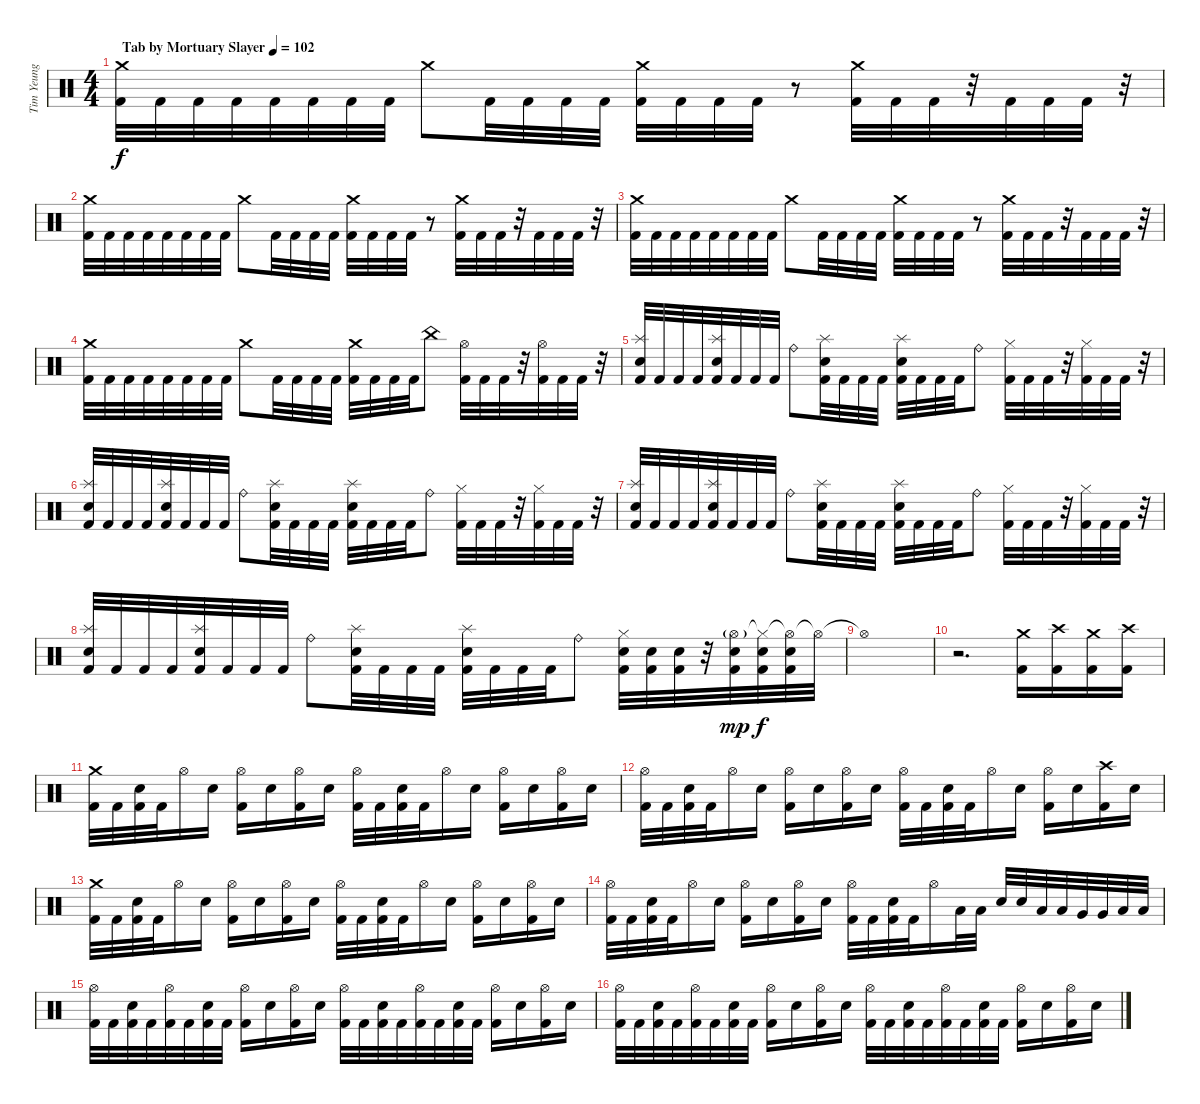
\track ("Tim Yeung" "Tim Yeung") {instrument percussion}
\staff {score}
\articulation defaults
\ts (4 4)
\tempo (102 "Tab by Mortuary Slayer")
\clef neutral
\ks c
("Crash medium (hit)" "Kick (hit) 2").32{dy f} "Kick (hit) 2".32 "Kick (hit) 2".32 "Kick (hit) 2".32 "Kick (hit) 2".32 "Kick (hit) 2".32 "Kick (hit) 2".32 "Kick (hit) 2".32 "Crash medium (hit)".8 "Kick (hit) 2".32 "Kick (hit) 2".32 "Kick (hit) 2".32 "Kick (hit) 2".32 ("Crash medium (hit)" "Kick (hit) 2").32 "Kick (hit) 2".32 "Kick (hit) 2".32 "Kick (hit) 2".32 r.8 ("Crash medium (hit)" "Kick (hit) 2").32 "Kick (hit) 2".32 "Kick (hit) 2".32 r.32 "Kick (hit) 2".32 "Kick (hit) 2".32 "Kick (hit) 2".32 r.32 |
("Crash medium (hit)" "Kick (hit) 2").32 "Kick (hit) 2".32 "Kick (hit) 2".32 "Kick (hit) 2".32 "Kick (hit) 2".32 "Kick (hit) 2".32 "Kick (hit) 2".32 "Kick (hit) 2".32 "Crash medium (hit)".8 "Kick (hit) 2".32 "Kick (hit) 2".32 "Kick (hit) 2".32 "Kick (hit) 2".32 ("Crash medium (hit)" "Kick (hit) 2").32 "Kick (hit) 2".32 "Kick (hit) 2".32 "Kick (hit) 2".32 r.8 ("Crash medium (hit)" "Kick (hit) 2").32 "Kick (hit) 2".32 "Kick (hit) 2".32 r.32 "Kick (hit) 2".32 "Kick (hit) 2".32 "Kick (hit) 2".32 r.32 |
("Crash medium (hit)" "Kick (hit) 2").32 "Kick (hit) 2".32 "Kick (hit) 2".32 "Kick (hit) 2".32 "Kick (hit) 2".32 "Kick (hit) 2".32 "Kick (hit) 2".32 "Kick (hit) 2".32 "Crash medium (hit)".8 "Kick (hit) 2".32 "Kick (hit) 2".32 "Kick (hit) 2".32 "Kick (hit) 2".32 ("Crash medium (hit)" "Kick (hit) 2").32 "Kick (hit) 2".32 "Kick (hit) 2".32 "Kick (hit) 2".32 r.8 ("Crash medium (hit)" "Kick (hit) 2").32 "Kick (hit) 2".32 "Kick (hit) 2".32 r.32 "Kick (hit) 2".32 "Kick (hit) 2".32 "Kick (hit) 2".32 r.32 |
("Crash medium (hit)" "Kick (hit) 2").32 "Kick (hit) 2".32 "Kick (hit) 2".32 "Kick (hit) 2".32 "Kick (hit) 2".32 "Kick (hit) 2".32 "Kick (hit) 2".32 "Kick (hit) 2".32 "Crash medium (hit)".8 "Kick (hit) 2".32 "Kick (hit) 2".32 "Kick (hit) 2".32 "Kick (hit) 2".32 ("Crash medium (hit)" "Kick (hit) 2").32 "Kick (hit) 2".32 "Kick (hit) 2".32 "Kick (hit) 2".32 "China (hit)".8 ("Hi-Hat (open)" "Kick (hit) 2").32 "Kick (hit) 2".32 "Kick (hit) 2".32 r.32 ("Hi-Hat (open)" "Kick (hit) 2").32 "Kick (hit) 2".32 "Kick (hit) 2".32 r.32 |
("Splash (hit)" "Electric Snare (hit)" "Kick (hit) 2").32 "Kick (hit) 2".32 "Kick (hit) 2".32 "Kick (hit) 2".32 ("Splash (hit)" "Electric Snare (hit)" "Kick (hit) 2").32 "Kick (hit) 2".32 "Kick (hit) 2".32 "Kick (hit) 2".32 "Ride (bell)".8 ("Splash (hit)" "Electric Snare (hit)" "Kick (hit) 2").32 "Kick (hit) 2".32 "Kick (hit) 2".32 "Kick (hit) 2".32 ("Splash (hit)" "Electric Snare (hit)" "Kick (hit) 2").32 "Kick (hit) 2".32 "Kick (hit) 2".32 "Kick (hit) 2".32 "Ride (bell)".8 ("Hi-Hat (closed)" "Kick (hit) 2").32 "Kick (hit) 2".32 "Kick (hit) 2".32 r.32 ("Hi-Hat (closed)" "Kick (hit) 2").32 "Kick (hit) 2".32 "Kick (hit) 2".32 r.32 |
("Splash (hit)" "Electric Snare (hit)" "Kick (hit) 2").32 "Kick (hit) 2".32 "Kick (hit) 2".32 "Kick (hit) 2".32 ("Splash (hit)" "Electric Snare (hit)" "Kick (hit) 2").32 "Kick (hit) 2".32 "Kick (hit) 2".32 "Kick (hit) 2".32 "Ride (bell)".8 ("Splash (hit)" "Electric Snare (hit)" "Kick (hit) 2").32 "Kick (hit) 2".32 "Kick (hit) 2".32 "Kick (hit) 2".32 ("Splash (hit)" "Electric Snare (hit)" "Kick (hit) 2").32 "Kick (hit) 2".32 "Kick (hit) 2".32 "Kick (hit) 2".32 "Ride (bell)".8 ("Hi-Hat (closed)" "Kick (hit) 2").32 "Kick (hit) 2".32 "Kick (hit) 2".32 r.32 ("Hi-Hat (closed)" "Kick (hit) 2").32 "Kick (hit) 2".32 "Kick (hit) 2".32 r.32 |
("Splash (hit)" "Electric Snare (hit)" "Kick (hit) 2").32 "Kick (hit) 2".32 "Kick (hit) 2".32 "Kick (hit) 2".32 ("Splash (hit)" "Electric Snare (hit)" "Kick (hit) 2").32 "Kick (hit) 2".32 "Kick (hit) 2".32 "Kick (hit) 2".32 "Ride (bell)".8 ("Splash (hit)" "Electric Snare (hit)" "Kick (hit) 2").32 "Kick (hit) 2".32 "Kick (hit) 2".32 "Kick (hit) 2".32 ("Splash (hit)" "Electric Snare (hit)" "Kick (hit) 2").32 "Kick (hit) 2".32 "Kick (hit) 2".32 "Kick (hit) 2".32 "Ride (bell)".8 ("Hi-Hat (closed)" "Kick (hit) 2").32 "Kick (hit) 2".32 "Kick (hit) 2".32 r.32 ("Hi-Hat (closed)" "Kick (hit) 2").32 "Kick (hit) 2".32 "Kick (hit) 2".32 r.32 |
("Splash (hit)" "Electric Snare (hit)" "Kick (hit) 2").32 "Kick (hit) 2".32 "Kick (hit) 2".32 "Kick (hit) 2".32 ("Splash (hit)" "Electric Snare (hit)" "Kick (hit) 2").32 "Kick (hit) 2".32 "Kick (hit) 2".32 "Kick (hit) 2".32 "Ride (bell)".8 ("Splash (hit)" "Electric Snare (hit)" "Kick (hit) 2").32 "Kick (hit) 2".32 "Kick (hit) 2".32 "Kick (hit) 2".32 ("Splash (hit)" "Electric Snare (hit)" "Kick (hit) 2").32 "Kick (hit) 2".32 "Kick (hit) 2".32 "Kick (hit) 2".32 "Ride (bell)".8 ("Hi-Hat (closed)" "Electric Snare (hit)" "Kick (hit) 2").32 ("Electric Snare (hit)" "Kick (hit) 2").32 ("Electric Snare (hit)" "Kick (hit) 2").32 r.32 ("Hi-Hat (open)"{g} "Electric Snare (hit)" "Kick (hit) 2").32{dy mp} ("Hi-Hat (closed)"{t} "Electric Snare (hit)" "Kick (hit) 2").32{dy f} ("Hi-Hat (open)"{t} "Electric Snare (hit)" "Kick (hit) 2").32 "Hi-Hat (open)"{t}.32 |
"Hi-Hat (open)"{t}.1 |
r.2{d} ("Crash medium (hit)" "Kick (hit) 2").16 ("Crash high (hit)" "Kick (hit) 2").16 ("Crash medium (hit)" "Kick (hit) 2").16 ("Crash high (hit)" "Kick (hit) 2").16 |
("Crash medium (hit)" "Kick (hit) 2").32 "Kick (hit) 2".32 ("Electric Snare (hit)" "Kick (hit) 2").32 "Kick (hit) 2".32 "Hi-Hat (open)".16 "Electric Snare (hit)".16 ("Hi-Hat (open)" "Kick (hit) 2").16 "Electric Snare (hit)".16 ("Hi-Hat (open)" "Kick (hit) 2").16 "Electric Snare (hit)".16 ("Hi-Hat (open)" "Kick (hit) 2").32 "Kick (hit) 2".32 ("Electric Snare (hit)" "Kick (hit) 2").32 "Kick (hit) 2".32 "Hi-Hat (open)".16 "Electric Snare (hit)".16 ("Hi-Hat (open)" "Kick (hit) 2").16 "Electric Snare (hit)".16 ("Hi-Hat (open)" "Kick (hit) 2").16 "Electric Snare (hit)".16 |
("Hi-Hat (open)" "Kick (hit) 2").32 "Kick (hit) 2".32 ("Electric Snare (hit)" "Kick (hit) 2").32 "Kick (hit) 2".32 "Hi-Hat (open)".16 "Electric Snare (hit)".16 ("Hi-Hat (open)" "Kick (hit) 2").16 "Electric Snare (hit)".16 ("Hi-Hat (open)" "Kick (hit) 2").16 "Electric Snare (hit)".16 ("Hi-Hat (open)" "Kick (hit) 2").32 "Kick (hit) 2".32 ("Electric Snare (hit)" "Kick (hit) 2").32 "Kick (hit) 2".32 "Hi-Hat (open)".16 "Electric Snare (hit)".16 ("Hi-Hat (open)" "Kick (hit) 2").16 "Electric Snare (hit)".16 ("Crash high (hit)" "Kick (hit) 2").16 "Electric Snare (hit)".16 |
("Crash medium (hit)" "Kick (hit) 2").32 "Kick (hit) 2".32 ("Electric Snare (hit)" "Kick (hit) 2").32 "Kick (hit) 2".32 "Hi-Hat (open)".16 "Electric Snare (hit)".16 ("Hi-Hat (open)" "Kick (hit) 2").16 "Electric Snare (hit)".16 ("Hi-Hat (open)" "Kick (hit) 2").16 "Electric Snare (hit)".16 ("Hi-Hat (open)" "Kick (hit) 2").32 "Kick (hit) 2".32 ("Electric Snare (hit)" "Kick (hit) 2").32 "Kick (hit) 2".32 "Hi-Hat (open)".16 "Electric Snare (hit)".16 ("Hi-Hat (open)" "Kick (hit) 2").16 "Electric Snare (hit)".16 ("Hi-Hat (open)" "Kick (hit) 2").16 "Electric Snare (hit)".16 |
("Hi-Hat (open)" "Kick (hit) 2").32 "Kick (hit) 2".32 ("Electric Snare (hit)" "Kick (hit) 2").32 "Kick (hit) 2".32 "Hi-Hat (open)".16 "Electric Snare (hit)".16 ("Hi-Hat (open)" "Kick (hit) 2").16 "Electric Snare (hit)".16 ("Hi-Hat (open)" "Kick (hit) 2").16 "Electric Snare (hit)".16 ("Hi-Hat (open)" "Kick (hit) 2").32 "Kick (hit) 2".32 ("Electric Snare (hit)" "Kick (hit) 2").32 "Kick (hit) 2".32 "Hi-Hat (open)".16 "Low Tom (hit)".32 "Low Tom (hit)".32 "Electric Snare (hit)".32 "Electric Snare (hit)".32 "Low Tom (hit)".32 "Low Tom (hit)".32 "Very Low Tom (hit)".32 "Very Low Tom (hit)".32 "Low Floor Tom (hit)".32 "Low Floor Tom (hit)".32 |
("Hi-Hat (open)" "Kick (hit) 2").32 "Kick (hit) 2".32 ("Electric Snare (hit)" "Kick (hit) 2").32 "Kick (hit) 2".32 ("Hi-Hat (open)" "Kick (hit) 2").32 "Kick (hit) 2".32 ("Electric Snare (hit)" "Kick (hit) 2").32 "Kick (hit) 2".32 ("Hi-Hat (open)" "Kick (hit) 2").16 "Electric Snare (hit)".16 ("Hi-Hat (open)" "Kick (hit) 2").16 "Electric Snare (hit)".16 ("Hi-Hat (open)" "Kick (hit) 2").32 "Kick (hit) 2".32 ("Electric Snare (hit)" "Kick (hit) 2").32 "Kick (hit) 2".32 ("Hi-Hat (open)" "Kick (hit) 2").32 "Kick (hit) 2".32 ("Electric Snare (hit)" "Kick (hit) 2").32 "Kick (hit) 2".32 ("Hi-Hat (open)" "Kick (hit) 2").16 "Electric Snare (hit)".16 ("Hi-Hat (open)" "Kick (hit) 2").16 "Electric Snare (hit)".16 |
("Hi-Hat (open)" "Kick (hit) 2").32 "Kick (hit) 2".32 ("Electric Snare (hit)" "Kick (hit) 2").32 "Kick (hit) 2".32 ("Hi-Hat (open)" "Kick (hit) 2").32 "Kick (hit) 2".32 ("Electric Snare (hit)" "Kick (hit) 2").32 "Kick (hit) 2".32 ("Hi-Hat (open)" "Kick (hit) 2").16 "Electric Snare (hit)".16 ("Hi-Hat (open)" "Kick (hit) 2").16 "Electric Snare (hit)".16 ("Hi-Hat (open)" "Kick (hit) 2").32 "Kick (hit) 2".32 ("Electric Snare (hit)" "Kick (hit) 2").32 "Kick (hit) 2".32 ("Hi-Hat (open)" "Kick (hit) 2").32 "Kick (hit) 2".32 ("Electric Snare (hit)" "Kick (hit) 2").32 "Kick (hit) 2".32 ("Hi-Hat (open)" "Kick (hit) 2").16 "Electric Snare (hit)".16 ("Hi-Hat (open)" "Kick (hit) 2").16 "Electric Snare (hit)".16
